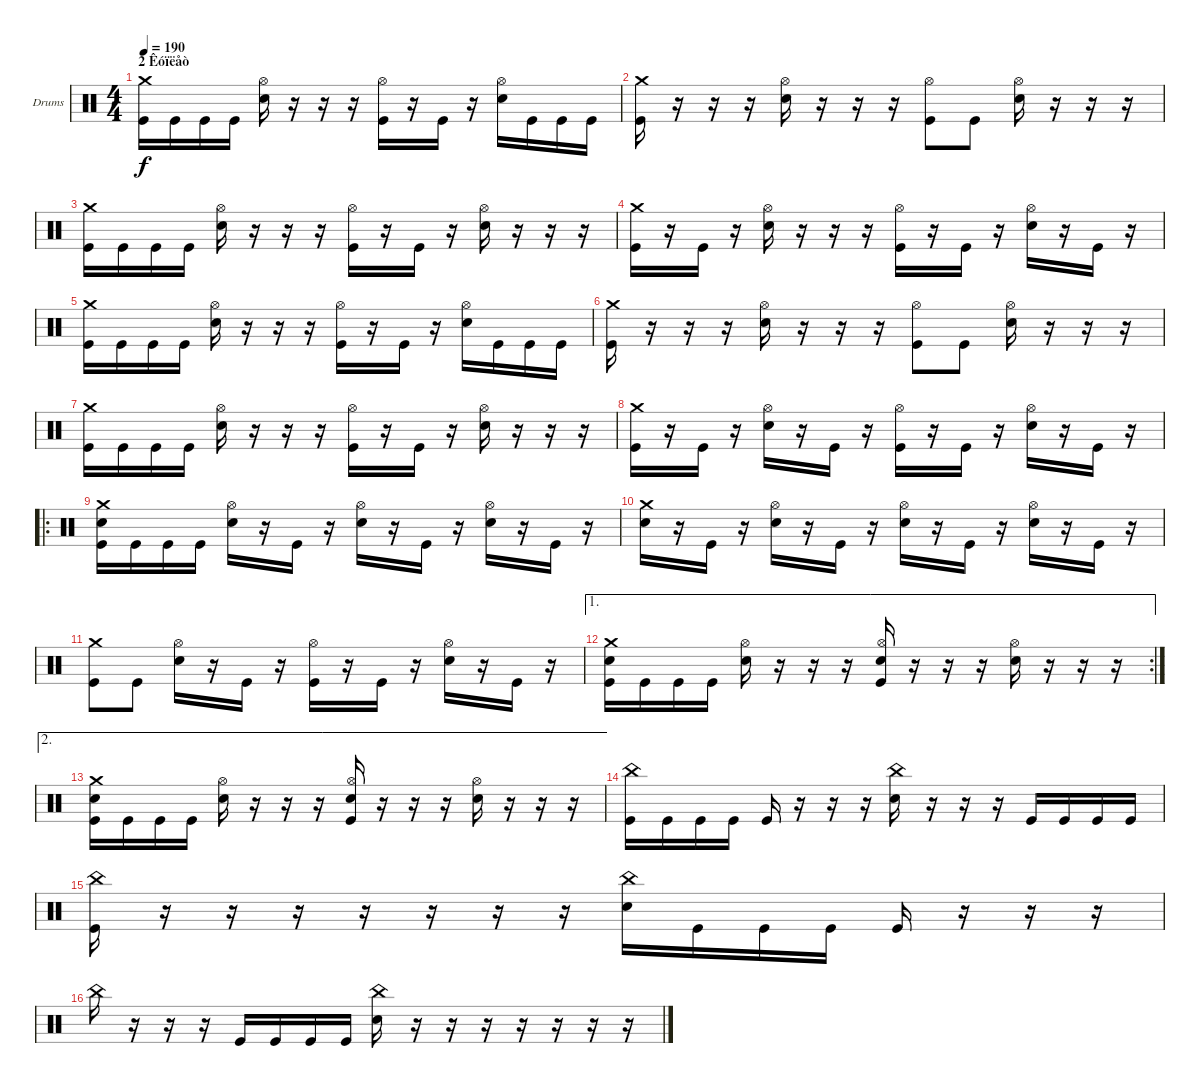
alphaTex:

\bracketExtendMode groupsimilarinstruments
\firstSystemTrackNameOrientation horizontal
\otherSystemsTrackNameOrientation horizontal
\track ("Drumkit" "Drums") {instrument percussion}
\staff {score}
\articulation defaults
\ts (4 4)
\section ("" "2 Êóïëåò")
\tempo 190
\clef neutral
\ks c
("Crash medium (hit)" "Kick (hit)").16{dy f} "Kick (hit)".16 "Kick (hit)".16 "Kick (hit)".16 ("Hi-Hat (open)" "Snare (hit) 2").16 r.16 r.16 r.16 ("Hi-Hat (open)" "Kick (hit)").16 r.16 "Kick (hit)".16 r.16 ("Hi-Hat (open)" "Snare (hit) 2").16 "Kick (hit)".16 "Kick (hit)".16 "Kick (hit)".16 |
("Crash medium (hit)" "Kick (hit)").16 r.16 r.16 r.16 ("Hi-Hat (open)" "Snare (hit) 2").16 r.16 r.16 r.16 ("Hi-Hat (open)" "Kick (hit)").8 "Kick (hit)".8 ("Hi-Hat (open)" "Snare (hit) 2").16 r.16 r.16 r.16 |
("Crash medium (hit)" "Kick (hit)").16 "Kick (hit)".16 "Kick (hit)".16 "Kick (hit)".16 ("Hi-Hat (open)" "Snare (hit) 2").16 r.16 r.16 r.16 ("Hi-Hat (open)" "Kick (hit)").16 r.16 "Kick (hit)".16 r.16 ("Hi-Hat (open)" "Snare (hit) 2").16 r.16 r.16 r.16 |
("Crash medium (hit)" "Kick (hit)").16 r.16 "Kick (hit)".16 r.16 ("Hi-Hat (open)" "Snare (hit) 2").16 r.16 r.16 r.16 ("Hi-Hat (open)" "Kick (hit)").16 r.16 "Kick (hit)".16 r.16 ("Hi-Hat (open)" "Snare (hit) 2").16 r.16 "Kick (hit)".16 r.16 |
("Crash medium (hit)" "Kick (hit)").16 "Kick (hit)".16 "Kick (hit)".16 "Kick (hit)".16 ("Hi-Hat (open)" "Snare (hit) 2").16 r.16 r.16 r.16 ("Hi-Hat (open)" "Kick (hit)").16 r.16 "Kick (hit)".16 r.16 ("Hi-Hat (open)" "Snare (hit) 2").16 "Kick (hit)".16 "Kick (hit)".16 "Kick (hit)".16 |
("Crash medium (hit)" "Kick (hit)").16 r.16 r.16 r.16 ("Hi-Hat (open)" "Snare (hit) 2").16 r.16 r.16 r.16 ("Hi-Hat (open)" "Kick (hit)").8 "Kick (hit)".8 ("Hi-Hat (open)" "Snare (hit) 2").16 r.16 r.16 r.16 |
("Crash medium (hit)" "Kick (hit)").16 "Kick (hit)".16 "Kick (hit)".16 "Kick (hit)".16 ("Hi-Hat (open)" "Snare (hit) 2").16 r.16 r.16 r.16 ("Hi-Hat (open)" "Kick (hit)").16 r.16 "Kick (hit)".16 r.16 ("Hi-Hat (open)" "Snare (hit) 2").16 r.16 r.16 r.16 |
("Crash medium (hit)" "Kick (hit)").16 r.16 "Kick (hit)".16 r.16 ("Hi-Hat (open)" "Snare (hit) 2").16 r.16 "Kick (hit)".16 r.16 ("Hi-Hat (open)" "Kick (hit)").16 r.16 "Kick (hit)".16 r.16 ("Hi-Hat (open)" "Snare (hit) 2").16 r.16 "Kick (hit)".16 r.16 |
\ro
("Crash medium (hit)" "Snare (hit) 2" "Kick (hit)").16 "Kick (hit)".16 "Kick (hit)".16 "Kick (hit)".16 ("Hi-Hat (open)" "Snare (hit) 2").16 r.16 "Kick (hit)".16 r.16 ("Hi-Hat (open)" "Snare (hit) 2").16 r.16 "Kick (hit)".16 r.16 ("Hi-Hat (open)" "Snare (hit) 2").16 r.16 "Kick (hit)".16 r.16 |
("Crash medium (hit)" "Snare (hit) 2").16 r.16 "Kick (hit)".16 r.16 ("Hi-Hat (open)" "Snare (hit) 2").16 r.16 "Kick (hit)".16 r.16 ("Hi-Hat (open)" "Snare (hit) 2").16 r.16 "Kick (hit)".16 r.16 ("Hi-Hat (open)" "Snare (hit) 2").16 r.16 "Kick (hit)".16 r.16 |
("Crash medium (hit)" "Kick (hit)").8 "Kick (hit)".8 ("Hi-Hat (open)" "Snare (hit) 2").16 r.16 "Kick (hit)".16 r.16 ("Hi-Hat (open)" "Kick (hit)").16 r.16 "Kick (hit)".16 r.16 ("Hi-Hat (open)" "Snare (hit) 2").16 r.16 "Kick (hit)".16 r.16 |
\ae 1
\rc 2
("Crash medium (hit)" "Snare (hit) 2" "Kick (hit)").16 "Kick (hit)".16 "Kick (hit)".16 "Kick (hit)".16 ("Hi-Hat (open)" "Snare (hit) 2").16 r.16 r.16 r.16 ("Hi-Hat (open)" "Snare (hit) 2" "Kick (hit)").16 r.16 r.16 r.16 ("Hi-Hat (open)" "Snare (hit) 2").16 r.16 r.16 r.16 |
\ae 2
("Crash medium (hit)" "Snare (hit) 2" "Kick (hit)").16 "Kick (hit)".16 "Kick (hit)".16 "Kick (hit)".16 ("Hi-Hat (open)" "Snare (hit) 2").16 r.16 r.16 r.16 ("Hi-Hat (open)" "Snare (hit) 2" "Kick (hit)").16 r.16 r.16 r.16 ("Hi-Hat (open)" "Snare (hit) 2").16 r.16 r.16 r.16 |
("China (hit)" "Kick (hit)").16 "Kick (hit)".16 "Kick (hit)".16 "Kick (hit)".16 "Kick (hit)".16 r.16 r.16 r.16 ("China (hit)" "Snare (hit) 2").16 r.16 r.16 r.16 "Kick (hit)".16 "Kick (hit)".16 "Kick (hit)".16 "Kick (hit)".16 |
("China (hit)" "Kick (hit)").16 r.16 r.16 r.16 r.16 r.16 r.16 r.16 ("China (hit)" "Snare (hit) 2").16 "Kick (hit)".16 "Kick (hit)".16 "Kick (hit)".16 "Kick (hit)".16 r.16 r.16 r.16 |
"China (hit)".16 r.16 r.16 r.16 "Kick (hit)".16 "Kick (hit)".16 "Kick (hit)".16 "Kick (hit)".16 ("China (hit)" "Snare (hit) 2").16 r.16 r.16 r.16 r.16 r.16 r.16 r.16
